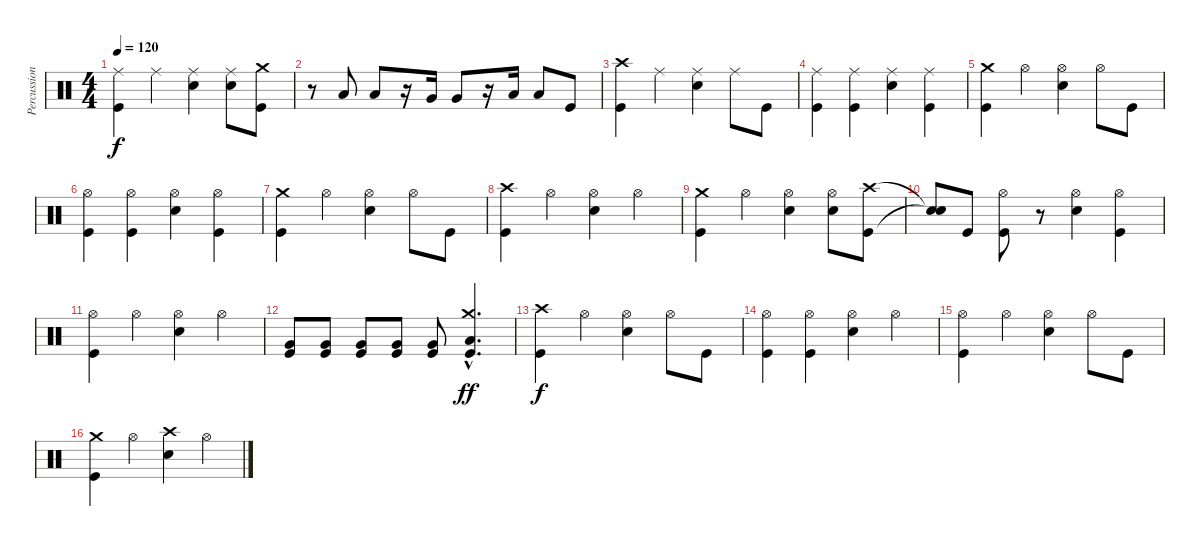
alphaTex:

\track ("Percussion" "Percussion") {instrument percussion}
\staff {score}
\articulation defaults
\ts (4 4)
\tempo 120
\clef neutral
\ks c
("Ride (middle)" "Kick (hit)").4{dy f} "Ride (middle)".4 ("Ride (middle)" "Snare (hit) 2").4 ("Ride (middle)" "Snare (hit) 2").8 ("Crash medium (hit)" "Kick (hit)").8 |
r.8 "Low Tom (hit)".8 "Low Tom (hit)".8 r.16 "Very Low Tom (hit)".16 "Very Low Tom (hit)".8 r.16 "Low Floor Tom (hit)".16 "Low Floor Tom (hit)".8 "Kick (hit)".8 |
("Crash high (hit)" "Kick (hit)").4 "Ride (middle)".4 ("Ride (middle)" "Snare (hit) 2").4 "Ride (middle)".8 "Kick (hit)".8 |
("Ride (middle)" "Kick (hit)").4 ("Ride (middle)" "Kick (hit)").4 ("Ride (middle)" "Snare (hit) 2").4 ("Ride (middle)" "Kick (hit)").4 |
("Crash medium (hit)" "Kick (hit)").4 "Hi-Hat (open)".4 ("Hi-Hat (open)" "Snare (hit) 2").4 "Hi-Hat (open)".8 "Kick (hit)".8 |
("Hi-Hat (open)" "Kick (hit)").4 ("Hi-Hat (open)" "Kick (hit)").4 ("Hi-Hat (open)" "Snare (hit) 2").4 ("Hi-Hat (open)" "Kick (hit)").4 |
("Crash medium (hit)" "Kick (hit)").4 "Hi-Hat (open)".4 ("Hi-Hat (open)" "Snare (hit) 2").4 "Hi-Hat (open)".8 "Kick (hit)".8 |
("Crash high (hit)" "Kick (hit)").4 "Hi-Hat (open)".4 ("Hi-Hat (open)" "Snare (hit) 2").4 "Hi-Hat (open)".4 |
("Crash medium (hit)" "Kick (hit)").4 "Hi-Hat (open)".4 ("Hi-Hat (open)" "Snare (hit) 2").4 ("Hi-Hat (open)" "Snare (hit) 2").8 ("Crash high (hit)" "Kick (hit)").8 |
("Snare (hit)"{t} "Snare (hit)"{t}).8 "Kick (hit)".8 ("Hi-Hat (open)" "Kick (hit)").8 r.8 ("Hi-Hat (open)" "Snare (hit) 2").4 ("Hi-Hat (open)" "Kick (hit)").4 |
("Hi-Hat (open)" "Kick (hit)").4 "Hi-Hat (open)".4 ("Hi-Hat (open)" "Snare (hit) 2").4 "Hi-Hat (open)".4 |
("Very Low Tom (hit)" "Kick (hit)").8 ("Very Low Tom (hit)" "Kick (hit)").8 ("Very Low Tom (hit)" "Kick (hit)").8 ("Very Low Tom (hit)" "Kick (hit)").8 ("Very Low Tom (hit)" "Kick (hit)").8 ("Crash medium (hit)"{hac} "Kick (hit)"{hac} "Low Tom (hit)"{hac}).4{d dy ff} |
("Crash high (hit)" "Kick (hit)").4{dy f} "Hi-Hat (open)".4 ("Hi-Hat (open)" "Snare (hit) 2").4 "Hi-Hat (open)".8 "Kick (hit)".8 |
("Hi-Hat (open)" "Kick (hit)").4 ("Hi-Hat (open)" "Kick (hit)").4 ("Hi-Hat (open)" "Snare (hit) 2").4 "Hi-Hat (open)".4 |
("Hi-Hat (open)" "Kick (hit)").4 "Hi-Hat (open)".4 ("Hi-Hat (open)" "Snare (hit) 2").4 "Hi-Hat (open)".8 "Kick (hit)".8 |
("Crash medium (hit)" "Kick (hit)").4 "Hi-Hat (open)".4 ("Crash high (hit)" "Snare (hit) 2").4 "Hi-Hat (open)".4
